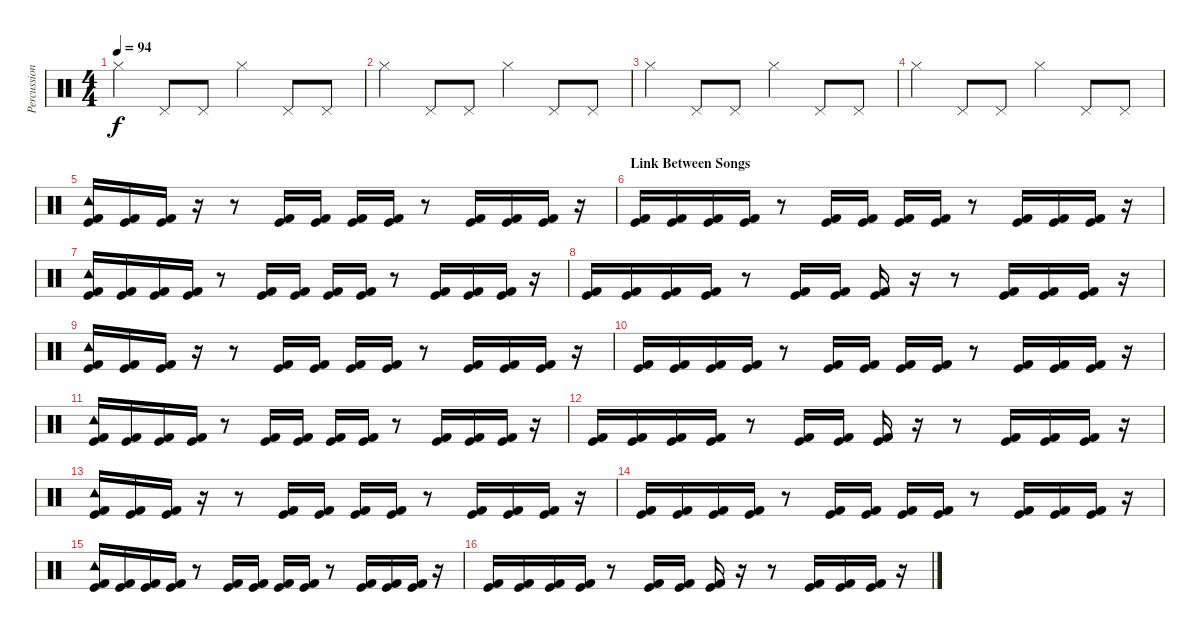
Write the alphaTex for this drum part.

\track ("Percussion" "Percussion") {instrument percussion}
\staff {score}
\articulation defaults
\ts (4 4)
\tempo 94
\clef neutral
\ks c "Hi-Hat (closed)".4{dy f} "Pedal Hi-Hat (hit)".8 "Pedal Hi-Hat (hit)".8 "Hi-Hat (closed)".4 "Pedal Hi-Hat (hit)".8 "Pedal Hi-Hat (hit)".8
|
"Hi-Hat (closed)".4 "Pedal Hi-Hat (hit)".8 "Pedal Hi-Hat (hit)".8 "Hi-Hat (closed)".4 "Pedal Hi-Hat (hit)".8 "Pedal Hi-Hat (hit)".8 |
"Hi-Hat (closed)".4 "Pedal Hi-Hat (hit)".8 "Pedal Hi-Hat (hit)".8 "Hi-Hat (closed)".4 "Pedal Hi-Hat (hit)".8 "Pedal Hi-Hat (hit)".8 |
"Hi-Hat (closed)".4 "Pedal Hi-Hat (hit)".8 "Pedal Hi-Hat (hit)".8 "Hi-Hat (closed)".4 "Pedal Hi-Hat (hit)".8 "Pedal Hi-Hat (hit)".8 |
("Tambourine (hit)" "Kick (hit) 2" "Kick (hit)").16{volume 15} ("Kick (hit) 2" "Kick (hit)").16 ("Kick (hit) 2" "Kick (hit)").16 r.16 r.8 ("Kick (hit) 2" "Kick (hit)").16 ("Kick (hit) 2" "Kick (hit)").16 ("Kick (hit) 2" "Kick (hit)").16 ("Kick (hit) 2" "Kick (hit)").16 r.8 ("Kick (hit) 2" "Kick (hit)").16 ("Kick (hit) 2" "Kick (hit)").16 ("Kick (hit) 2" "Kick (hit)").16 r.16 |
\section ("" "Link Between Songs")
("Kick (hit) 2" "Kick (hit)").16 ("Kick (hit) 2" "Kick (hit)").16 ("Kick (hit) 2" "Kick (hit)").16 ("Kick (hit) 2" "Kick (hit)").16 r.8 ("Kick (hit) 2" "Kick (hit)").16 ("Kick (hit) 2" "Kick (hit)").16 ("Kick (hit) 2" "Kick (hit)").16 ("Kick (hit) 2" "Kick (hit)").16 r.8 ("Kick (hit) 2" "Kick (hit)").16 ("Kick (hit) 2" "Kick (hit)").16 ("Kick (hit) 2" "Kick (hit)").16 r.16 |
("Tambourine (hit)" "Kick (hit) 2" "Kick (hit)").16 ("Kick (hit) 2" "Kick (hit)").16 ("Kick (hit) 2" "Kick (hit)").16 ("Kick (hit) 2" "Kick (hit)").16 r.8 ("Kick (hit) 2" "Kick (hit)").16 ("Kick (hit) 2" "Kick (hit)").16 ("Kick (hit) 2" "Kick (hit)").16 ("Kick (hit) 2" "Kick (hit)").16 r.8 ("Kick (hit) 2" "Kick (hit)").16 ("Kick (hit) 2" "Kick (hit)").16 ("Kick (hit) 2" "Kick (hit)").16 r.16 |
("Kick (hit) 2" "Kick (hit)").16 ("Kick (hit) 2" "Kick (hit)").16 ("Kick (hit) 2" "Kick (hit)").16 ("Kick (hit) 2" "Kick (hit)").16 r.8 ("Kick (hit) 2" "Kick (hit)").16 ("Kick (hit) 2" "Kick (hit)").16 ("Kick (hit) 2" "Kick (hit)").16 r.16 r.8 ("Kick (hit) 2" "Kick (hit)").16 ("Kick (hit) 2" "Kick (hit)").16 ("Kick (hit) 2" "Kick (hit)").16 r.16 |
("Tambourine (hit)" "Kick (hit) 2" "Kick (hit)").16 ("Kick (hit) 2" "Kick (hit)").16 ("Kick (hit) 2" "Kick (hit)").16 r.16 r.8 ("Kick (hit) 2" "Kick (hit)").16 ("Kick (hit) 2" "Kick (hit)").16 ("Kick (hit) 2" "Kick (hit)").16 ("Kick (hit) 2" "Kick (hit)").16 r.8 ("Kick (hit) 2" "Kick (hit)").16 ("Kick (hit) 2" "Kick (hit)").16 ("Kick (hit) 2" "Kick (hit)").16 r.16 |
("Kick (hit) 2" "Kick (hit)").16 ("Kick (hit) 2" "Kick (hit)").16 ("Kick (hit) 2" "Kick (hit)").16 ("Kick (hit) 2" "Kick (hit)").16 r.8 ("Kick (hit) 2" "Kick (hit)").16 ("Kick (hit) 2" "Kick (hit)").16 ("Kick (hit) 2" "Kick (hit)").16 ("Kick (hit) 2" "Kick (hit)").16 r.8 ("Kick (hit) 2" "Kick (hit)").16 ("Kick (hit) 2" "Kick (hit)").16 ("Kick (hit) 2" "Kick (hit)").16 r.16 |
("Tambourine (hit)" "Kick (hit) 2" "Kick (hit)").16 ("Kick (hit) 2" "Kick (hit)").16 ("Kick (hit) 2" "Kick (hit)").16 ("Kick (hit) 2" "Kick (hit)").16 r.8 ("Kick (hit) 2" "Kick (hit)").16 ("Kick (hit) 2" "Kick (hit)").16 ("Kick (hit) 2" "Kick (hit)").16 ("Kick (hit) 2" "Kick (hit)").16 r.8 ("Kick (hit) 2" "Kick (hit)").16 ("Kick (hit) 2" "Kick (hit)").16 ("Kick (hit) 2" "Kick (hit)").16 r.16 |
("Kick (hit) 2" "Kick (hit)").16 ("Kick (hit) 2" "Kick (hit)").16 ("Kick (hit) 2" "Kick (hit)").16 ("Kick (hit) 2" "Kick (hit)").16 r.8 ("Kick (hit) 2" "Kick (hit)").16 ("Kick (hit) 2" "Kick (hit)").16 ("Kick (hit) 2" "Kick (hit)").16 r.16 r.8 ("Kick (hit) 2" "Kick (hit)").16 ("Kick (hit) 2" "Kick (hit)").16 ("Kick (hit) 2" "Kick (hit)").16 r.16 |
("Tambourine (hit)" "Kick (hit) 2" "Kick (hit)").16 ("Kick (hit) 2" "Kick (hit)").16 ("Kick (hit) 2" "Kick (hit)").16 r.16 r.8 ("Kick (hit) 2" "Kick (hit)").16 ("Kick (hit) 2" "Kick (hit)").16 ("Kick (hit) 2" "Kick (hit)").16 ("Kick (hit) 2" "Kick (hit)").16 r.8 ("Kick (hit) 2" "Kick (hit)").16 ("Kick (hit) 2" "Kick (hit)").16 ("Kick (hit) 2" "Kick (hit)").16 r.16 |
("Kick (hit) 2" "Kick (hit)").16 ("Kick (hit) 2" "Kick (hit)").16 ("Kick (hit) 2" "Kick (hit)").16 ("Kick (hit) 2" "Kick (hit)").16 r.8 ("Kick (hit) 2" "Kick (hit)").16 ("Kick (hit) 2" "Kick (hit)").16 ("Kick (hit) 2" "Kick (hit)").16 ("Kick (hit) 2" "Kick (hit)").16 r.8 ("Kick (hit) 2" "Kick (hit)").16 ("Kick (hit) 2" "Kick (hit)").16 ("Kick (hit) 2" "Kick (hit)").16 r.16 |
("Tambourine (hit)" "Kick (hit) 2" "Kick (hit)").16 ("Kick (hit) 2" "Kick (hit)").16 ("Kick (hit) 2" "Kick (hit)").16 ("Kick (hit) 2" "Kick (hit)").16 r.8 ("Kick (hit) 2" "Kick (hit)").16 ("Kick (hit) 2" "Kick (hit)").16 ("Kick (hit) 2" "Kick (hit)").16 ("Kick (hit) 2" "Kick (hit)").16 r.8 ("Kick (hit) 2" "Kick (hit)").16 ("Kick (hit) 2" "Kick (hit)").16 ("Kick (hit) 2" "Kick (hit)").16 r.16 |
("Kick (hit) 2" "Kick (hit)").16 ("Kick (hit) 2" "Kick (hit)").16 ("Kick (hit) 2" "Kick (hit)").16 ("Kick (hit) 2" "Kick (hit)").16 r.8 ("Kick (hit) 2" "Kick (hit)").16 ("Kick (hit) 2" "Kick (hit)").16 ("Kick (hit) 2" "Kick (hit)").16 r.16 r.8 ("Kick (hit) 2" "Kick (hit)").16 ("Kick (hit) 2" "Kick (hit)").16 ("Kick (hit) 2" "Kick (hit)").16 r.16
